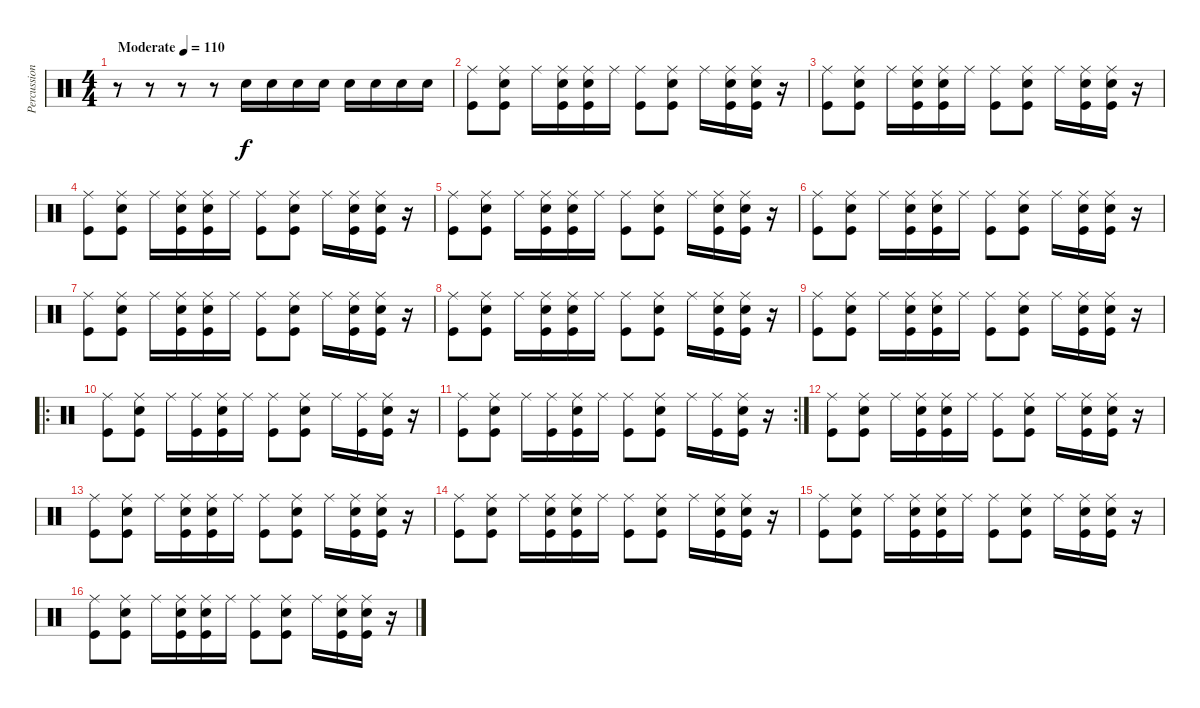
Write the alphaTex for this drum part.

\track ("Percussion" "Percussion") {instrument percussion}
\staff {score}
\articulation defaults
\ts (4 4)
\tempo (110 "Moderate")
\clef neutral
\ks c
r.8{dy f} r.8 r.8 r.8 "Snare (hit) 2".16 "Snare (hit) 2".16 "Snare (hit) 2".16 "Snare (hit) 2".16 "Snare (hit) 2".16 "Snare (hit) 2".16 "Snare (hit) 2".16 "Snare (hit) 2".16 |
("Ride (middle)" "Kick (hit)").8 ("Snare (hit) 2" "Ride (middle)" "Kick (hit)").8 "Ride (middle)".16 ("Snare (hit) 2" "Ride (middle)" "Kick (hit)").16 ("Snare (hit) 2" "Ride (middle)" "Kick (hit)").16 "Ride (middle)".16 ("Ride (middle)" "Kick (hit)").8 ("Snare (hit) 2" "Ride (middle)" "Kick (hit)").8 "Ride (middle)".16 ("Snare (hit) 2" "Ride (middle)" "Kick (hit)").16 ("Snare (hit) 2" "Ride (middle)" "Kick (hit)").16 r.16 |
("Ride (middle)" "Kick (hit)").8 ("Snare (hit) 2" "Ride (middle)" "Kick (hit)").8 "Ride (middle)".16 ("Snare (hit) 2" "Ride (middle)" "Kick (hit)").16 ("Snare (hit) 2" "Ride (middle)" "Kick (hit)").16 "Ride (middle)".16 ("Ride (middle)" "Kick (hit)").8 ("Snare (hit) 2" "Ride (middle)" "Kick (hit)").8 "Ride (middle)".16 ("Snare (hit) 2" "Ride (middle)" "Kick (hit)").16 ("Snare (hit) 2" "Ride (middle)" "Kick (hit)").16 r.16 |
("Ride (middle)" "Kick (hit)").8 ("Snare (hit) 2" "Ride (middle)" "Kick (hit)").8 "Ride (middle)".16 ("Snare (hit) 2" "Ride (middle)" "Kick (hit)").16 ("Snare (hit) 2" "Ride (middle)" "Kick (hit)").16 "Ride (middle)".16 ("Ride (middle)" "Kick (hit)").8 ("Snare (hit) 2" "Ride (middle)" "Kick (hit)").8 "Ride (middle)".16 ("Snare (hit) 2" "Ride (middle)" "Kick (hit)").16 ("Snare (hit) 2" "Ride (middle)" "Kick (hit)").16 r.16 |
("Ride (middle)" "Kick (hit)").8 ("Snare (hit) 2" "Ride (middle)" "Kick (hit)").8 "Ride (middle)".16 ("Snare (hit) 2" "Ride (middle)" "Kick (hit)").16 ("Snare (hit) 2" "Ride (middle)" "Kick (hit)").16 "Ride (middle)".16 ("Ride (middle)" "Kick (hit)").8 ("Snare (hit) 2" "Ride (middle)" "Kick (hit)").8 "Ride (middle)".16 ("Snare (hit) 2" "Ride (middle)" "Kick (hit)").16 ("Snare (hit) 2" "Ride (middle)" "Kick (hit)").16 r.16 |
("Ride (middle)" "Kick (hit)").8 ("Snare (hit) 2" "Ride (middle)" "Kick (hit)").8 "Ride (middle)".16 ("Snare (hit) 2" "Ride (middle)" "Kick (hit)").16 ("Snare (hit) 2" "Ride (middle)" "Kick (hit)").16 "Ride (middle)".16 ("Ride (middle)" "Kick (hit)").8 ("Snare (hit) 2" "Ride (middle)" "Kick (hit)").8 "Ride (middle)".16 ("Snare (hit) 2" "Ride (middle)" "Kick (hit)").16 ("Snare (hit) 2" "Ride (middle)" "Kick (hit)").16 r.16 |
("Ride (middle)" "Kick (hit)").8 ("Snare (hit) 2" "Ride (middle)" "Kick (hit)").8 "Ride (middle)".16 ("Snare (hit) 2" "Ride (middle)" "Kick (hit)").16 ("Snare (hit) 2" "Ride (middle)" "Kick (hit)").16 "Ride (middle)".16 ("Ride (middle)" "Kick (hit)").8 ("Snare (hit) 2" "Ride (middle)" "Kick (hit)").8 "Ride (middle)".16 ("Snare (hit) 2" "Ride (middle)" "Kick (hit)").16 ("Snare (hit) 2" "Ride (middle)" "Kick (hit)").16 r.16 |
("Ride (middle)" "Kick (hit)").8 ("Snare (hit) 2" "Ride (middle)" "Kick (hit)").8 "Ride (middle)".16 ("Snare (hit) 2" "Ride (middle)" "Kick (hit)").16 ("Snare (hit) 2" "Ride (middle)" "Kick (hit)").16 "Ride (middle)".16 ("Ride (middle)" "Kick (hit)").8 ("Snare (hit) 2" "Ride (middle)" "Kick (hit)").8 "Ride (middle)".16 ("Snare (hit) 2" "Ride (middle)" "Kick (hit)").16 ("Snare (hit) 2" "Ride (middle)" "Kick (hit)").16 r.16 |
("Ride (middle)" "Kick (hit)").8 ("Snare (hit) 2" "Ride (middle)" "Kick (hit)").8 "Ride (middle)".16 ("Snare (hit) 2" "Ride (middle)" "Kick (hit)").16 ("Snare (hit) 2" "Ride (middle)" "Kick (hit)").16 "Ride (middle)".16 ("Ride (middle)" "Kick (hit)").8 ("Snare (hit) 2" "Ride (middle)" "Kick (hit)").8 "Ride (middle)".16 ("Snare (hit) 2" "Ride (middle)" "Kick (hit)").16 ("Snare (hit) 2" "Ride (middle)" "Kick (hit)").16 r.16 |
\ro
("Ride (middle)" "Kick (hit)").8 ("Snare (hit) 2" "Ride (middle)" "Kick (hit)").8 "Ride (middle)".16 ("Ride (middle)" "Kick (hit)").16 ("Snare (hit) 2" "Ride (middle)" "Kick (hit)").16 "Ride (middle)".16 ("Ride (middle)" "Kick (hit)").8 ("Snare (hit) 2" "Ride (middle)" "Kick (hit)").8 "Ride (middle)".16 ("Ride (middle)" "Kick (hit)").16 ("Snare (hit) 2" "Ride (middle)" "Kick (hit)").16 r.16 |
\rc 2
("Ride (middle)" "Kick (hit)").8 ("Snare (hit) 2" "Ride (middle)" "Kick (hit)").8 "Ride (middle)".16 ("Ride (middle)" "Kick (hit)").16 ("Snare (hit) 2" "Ride (middle)" "Kick (hit)").16 "Ride (middle)".16 ("Ride (middle)" "Kick (hit)").8 ("Snare (hit) 2" "Ride (middle)" "Kick (hit)").8 "Ride (middle)".16 ("Ride (middle)" "Kick (hit)").16 ("Snare (hit) 2" "Ride (middle)" "Kick (hit)").16 r.16 |
("Ride (middle)" "Kick (hit)").8 ("Snare (hit) 2" "Ride (middle)" "Kick (hit)").8 "Ride (middle)".16 ("Snare (hit) 2" "Ride (middle)" "Kick (hit)").16 ("Snare (hit) 2" "Ride (middle)" "Kick (hit)").16 "Ride (middle)".16 ("Ride (middle)" "Kick (hit)").8 ("Snare (hit) 2" "Ride (middle)" "Kick (hit)").8 "Ride (middle)".16 ("Snare (hit) 2" "Ride (middle)" "Kick (hit)").16 ("Snare (hit) 2" "Ride (middle)" "Kick (hit)").16 r.16 |
("Ride (middle)" "Kick (hit)").8 ("Snare (hit) 2" "Ride (middle)" "Kick (hit)").8 "Ride (middle)".16 ("Snare (hit) 2" "Ride (middle)" "Kick (hit)").16 ("Snare (hit) 2" "Ride (middle)" "Kick (hit)").16 "Ride (middle)".16 ("Ride (middle)" "Kick (hit)").8 ("Snare (hit) 2" "Ride (middle)" "Kick (hit)").8 "Ride (middle)".16 ("Snare (hit) 2" "Ride (middle)" "Kick (hit)").16 ("Snare (hit) 2" "Ride (middle)" "Kick (hit)").16 r.16 |
("Ride (middle)" "Kick (hit)").8 ("Snare (hit) 2" "Ride (middle)" "Kick (hit)").8 "Ride (middle)".16 ("Snare (hit) 2" "Ride (middle)" "Kick (hit)").16 ("Snare (hit) 2" "Ride (middle)" "Kick (hit)").16 "Ride (middle)".16 ("Ride (middle)" "Kick (hit)").8 ("Snare (hit) 2" "Ride (middle)" "Kick (hit)").8 "Ride (middle)".16 ("Snare (hit) 2" "Ride (middle)" "Kick (hit)").16 ("Snare (hit) 2" "Ride (middle)" "Kick (hit)").16 r.16 |
("Ride (middle)" "Kick (hit)").8 ("Snare (hit) 2" "Ride (middle)" "Kick (hit)").8 "Ride (middle)".16 ("Snare (hit) 2" "Ride (middle)" "Kick (hit)").16 ("Snare (hit) 2" "Ride (middle)" "Kick (hit)").16 "Ride (middle)".16 ("Ride (middle)" "Kick (hit)").8 ("Snare (hit) 2" "Ride (middle)" "Kick (hit)").8 "Ride (middle)".16 ("Snare (hit) 2" "Ride (middle)" "Kick (hit)").16 ("Snare (hit) 2" "Ride (middle)" "Kick (hit)").16 r.16 |
("Ride (middle)" "Kick (hit)").8 ("Snare (hit) 2" "Ride (middle)" "Kick (hit)").8 "Ride (middle)".16 ("Snare (hit) 2" "Ride (middle)" "Kick (hit)").16 ("Snare (hit) 2" "Ride (middle)" "Kick (hit)").16 "Ride (middle)".16 ("Ride (middle)" "Kick (hit)").8 ("Snare (hit) 2" "Ride (middle)" "Kick (hit)").8 "Ride (middle)".16 ("Snare (hit) 2" "Ride (middle)" "Kick (hit)").16 ("Snare (hit) 2" "Ride (middle)" "Kick (hit)").16 r.16
